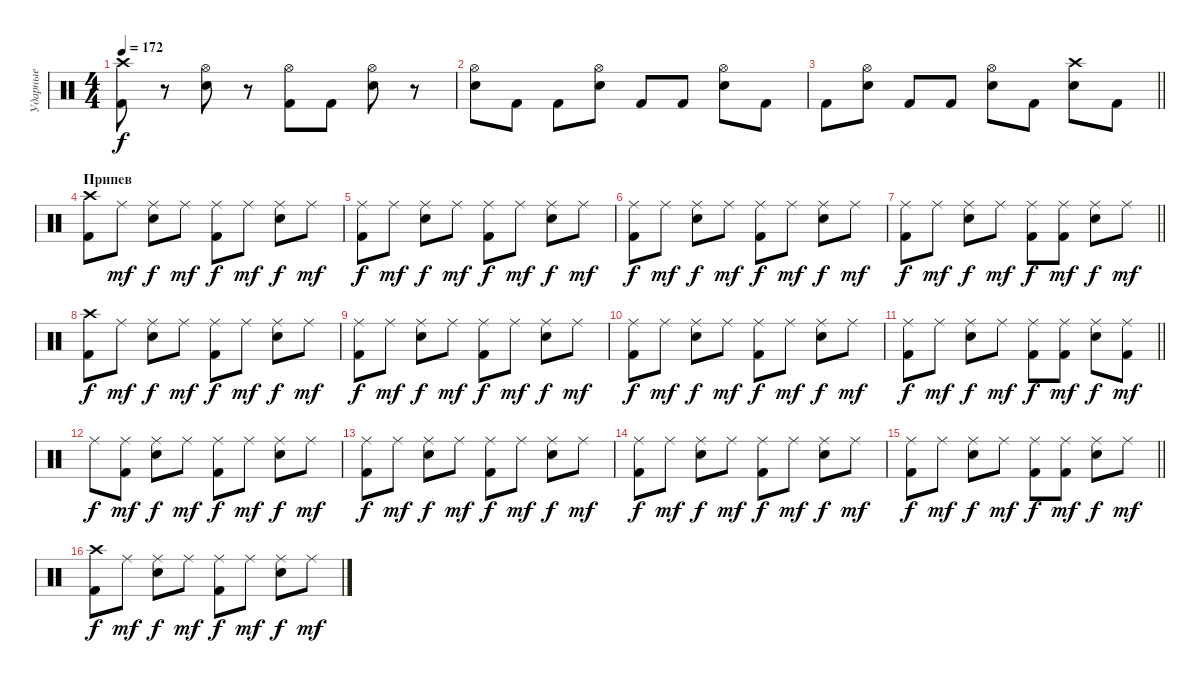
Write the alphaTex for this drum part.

\track ("Ударные" "Ударные") {instrument percussion}
\staff {score}
\articulation defaults
\ts (4 4)
\tempo 172
\clef neutral
\ks c
("Crash high (hit)" "Kick (hit) 2").8{dy f} r.8 ("Hi-Hat (open)" "Snare (hit) 2").8 r.8 ("Hi-Hat (open)" "Kick (hit) 2").8 "Kick (hit) 2".8 ("Hi-Hat (open)" "Snare (hit) 2").8 r.8 |
("Hi-Hat (open)" "Snare (hit) 2").8 "Kick (hit) 2".8 "Kick (hit) 2".8 ("Hi-Hat (open)" "Snare (hit) 2").8 "Kick (hit) 2".8 "Kick (hit) 2".8 ("Hi-Hat (open)" "Snare (hit) 2").8 "Kick (hit) 2".8 |
\barLineRight lightlight "Kick (hit) 2".8
("Hi-Hat (open)" "Snare (hit) 2").8 "Kick (hit) 2".8 "Kick (hit) 2".8 ("Hi-Hat (open)" "Snare (hit) 2").8 "Kick (hit) 2".8 ("Crash high (hit)" "Snare (hit) 2").8 "Kick (hit) 2".8 |
\section ("" "Припев")
("Crash high (hit)" "Kick (hit) 2").8 "Ride (middle)".8{dy mf} ("Ride (middle)" "Snare (hit) 2").8{dy f} "Ride (middle)".8{dy mf} ("Ride (middle)" "Kick (hit) 2").8{dy f} "Ride (middle)".8{dy mf} ("Ride (middle)" "Snare (hit) 2").8{dy f} "Ride (middle)".8{dy mf} |
("Ride (middle)" "Kick (hit) 2").8{dy f} "Ride (middle)".8{dy mf} ("Ride (middle)" "Snare (hit) 2").8{dy f} "Ride (middle)".8{dy mf} ("Ride (middle)" "Kick (hit) 2").8{dy f} "Ride (middle)".8{dy mf} ("Ride (middle)" "Snare (hit) 2").8{dy f} "Ride (middle)".8{dy mf} |
("Ride (middle)" "Kick (hit) 2").8{dy f} "Ride (middle)".8{dy mf} ("Ride (middle)" "Snare (hit) 2").8{dy f} "Ride (middle)".8{dy mf} ("Ride (middle)" "Kick (hit) 2").8{dy f} "Ride (middle)".8{dy mf} ("Ride (middle)" "Snare (hit) 2").8{dy f} "Ride (middle)".8{dy mf} |
\barLineRight lightlight
("Ride (middle)" "Kick (hit) 2").8{dy f} "Ride (middle)".8{dy mf} ("Ride (middle)" "Snare (hit) 2").8{dy f} "Ride (middle)".8{dy mf} ("Ride (middle)" "Kick (hit) 2").8{dy f} ("Ride (middle)" "Kick (hit) 2").8{dy mf} ("Ride (middle)" "Snare (hit) 2").8{dy f} "Ride (middle)".8{dy mf} |
("Crash high (hit)" "Kick (hit) 2").8{dy f} "Ride (middle)".8{dy mf} ("Ride (middle)" "Snare (hit) 2").8{dy f} "Ride (middle)".8{dy mf} ("Ride (middle)" "Kick (hit) 2").8{dy f} "Ride (middle)".8{dy mf} ("Ride (middle)" "Snare (hit) 2").8{dy f} "Ride (middle)".8{dy mf} |
("Ride (middle)" "Kick (hit) 2").8{dy f} "Ride (middle)".8{dy mf} ("Ride (middle)" "Snare (hit) 2").8{dy f} "Ride (middle)".8{dy mf} ("Ride (middle)" "Kick (hit) 2").8{dy f} "Ride (middle)".8{dy mf} ("Ride (middle)" "Snare (hit) 2").8{dy f} "Ride (middle)".8{dy mf} |
("Ride (middle)" "Kick (hit) 2").8{dy f} "Ride (middle)".8{dy mf} ("Ride (middle)" "Snare (hit) 2").8{dy f} "Ride (middle)".8{dy mf} ("Ride (middle)" "Kick (hit) 2").8{dy f} "Ride (middle)".8{dy mf} ("Ride (middle)" "Snare (hit) 2").8{dy f} "Ride (middle)".8{dy mf} |
\barLineRight lightlight
("Ride (middle)" "Kick (hit) 2").8{dy f} "Ride (middle)".8{dy mf} ("Ride (middle)" "Snare (hit) 2").8{dy f} "Ride (middle)".8{dy mf} ("Ride (middle)" "Kick (hit) 2").8{dy f} ("Ride (middle)" "Kick (hit) 2").8{dy mf} ("Ride (middle)" "Snare (hit) 2").8{dy f} ("Ride (middle)" "Kick (hit) 2").8{dy mf} |
\section ("" "")
"Ride (middle)".8{dy f} ("Ride (middle)" "Kick (hit) 2").8{dy mf} ("Ride (middle)" "Snare (hit) 2").8{dy f} "Ride (middle)".8{dy mf} ("Ride (middle)" "Kick (hit) 2").8{dy f} "Ride (middle)".8{dy mf} ("Ride (middle)" "Snare (hit) 2").8{dy f} "Ride (middle)".8{dy mf} |
("Ride (middle)" "Kick (hit) 2").8{dy f} "Ride (middle)".8{dy mf} ("Ride (middle)" "Snare (hit) 2").8{dy f} "Ride (middle)".8{dy mf} ("Ride (middle)" "Kick (hit) 2").8{dy f} "Ride (middle)".8{dy mf} ("Ride (middle)" "Snare (hit) 2").8{dy f} "Ride (middle)".8{dy mf} |
("Ride (middle)" "Kick (hit) 2").8{dy f} "Ride (middle)".8{dy mf} ("Ride (middle)" "Snare (hit) 2").8{dy f} "Ride (middle)".8{dy mf} ("Ride (middle)" "Kick (hit) 2").8{dy f} "Ride (middle)".8{dy mf} ("Ride (middle)" "Snare (hit) 2").8{dy f} "Ride (middle)".8{dy mf} |
\barLineRight lightlight
("Ride (middle)" "Kick (hit) 2").8{dy f} "Ride (middle)".8{dy mf} ("Ride (middle)" "Snare (hit) 2").8{dy f} "Ride (middle)".8{dy mf} ("Ride (middle)" "Kick (hit) 2").8{dy f} ("Ride (middle)" "Kick (hit) 2").8{dy mf} ("Ride (middle)" "Snare (hit) 2").8{dy f} "Ride (middle)".8{dy mf} |
("Crash high (hit)" "Kick (hit) 2").8{dy f} "Ride (middle)".8{dy mf} ("Ride (middle)" "Snare (hit) 2").8{dy f} "Ride (middle)".8{dy mf} ("Ride (middle)" "Kick (hit) 2").8{dy f} "Ride (middle)".8{dy mf} ("Ride (middle)" "Snare (hit) 2").8{dy f} "Ride (middle)".8{dy mf}
